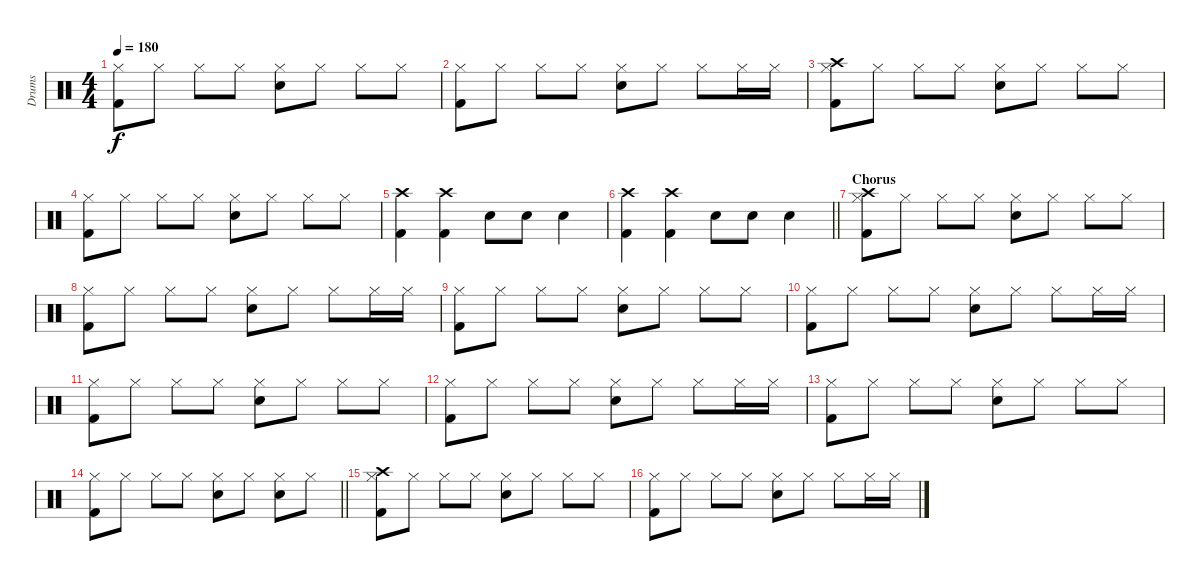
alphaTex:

\track ("Drums" "Drums") {instrument percussion}
\staff
\articulation defaults
\ts (4 4)
\tempo 180
\clef neutral
\ks c
("Hi-Hat (closed)" "Kick (hit) 2").8{dy f} "Hi-Hat (closed)".8 "Hi-Hat (closed)".8 "Hi-Hat (closed)".8 ("Hi-Hat (closed)" "Electric Snare (hit)").8 "Hi-Hat (closed)".8 "Hi-Hat (closed)".8 "Hi-Hat (closed)".8 |
("Hi-Hat (closed)" "Kick (hit) 2").8 "Hi-Hat (closed)".8 "Hi-Hat (closed)".8 "Hi-Hat (closed)".8 ("Hi-Hat (closed)" "Electric Snare (hit)").8 "Hi-Hat (closed)".8 "Hi-Hat (closed)".8 "Hi-Hat (closed)".16 "Hi-Hat (closed)".16 |
("Crash high (hit)" "Hi-Hat (closed)" "Kick (hit) 2").8 "Hi-Hat (closed)".8 "Hi-Hat (closed)".8 "Hi-Hat (closed)".8 ("Hi-Hat (closed)" "Electric Snare (hit)").8 "Hi-Hat (closed)".8 "Hi-Hat (closed)".8 "Hi-Hat (closed)".8 |
("Hi-Hat (closed)" "Kick (hit) 2").8 "Hi-Hat (closed)".8 "Hi-Hat (closed)".8 "Hi-Hat (closed)".8 ("Hi-Hat (closed)" "Electric Snare (hit)").8 "Hi-Hat (closed)".8 "Hi-Hat (closed)".8 "Hi-Hat (closed)".8 |
("Crash high (hit)" "Kick (hit) 2").4 ("Crash high (hit)" "Kick (hit) 2").4 "Electric Snare (hit)".8 "Electric Snare (hit)".8 "Electric Snare (hit)".4 |
\barLineRight lightlight
("Crash high (hit)" "Kick (hit) 2").4 ("Crash high (hit)" "Kick (hit) 2").4 "Electric Snare (hit)".8 "Electric Snare (hit)".8 "Electric Snare (hit)".4 |
\section ("" "Chorus")
("Crash high (hit)" "Hi-Hat (closed)" "Kick (hit) 2").8 "Hi-Hat (closed)".8 "Hi-Hat (closed)".8 "Hi-Hat (closed)".8 ("Hi-Hat (closed)" "Electric Snare (hit)").8 "Hi-Hat (closed)".8 "Hi-Hat (closed)".8 "Hi-Hat (closed)".8 |
("Hi-Hat (closed)" "Kick (hit) 2").8 "Hi-Hat (closed)".8 "Hi-Hat (closed)".8 "Hi-Hat (closed)".8 ("Hi-Hat (closed)" "Electric Snare (hit)").8 "Hi-Hat (closed)".8 "Hi-Hat (closed)".8 "Hi-Hat (closed)".16 "Hi-Hat (closed)".16 |
("Hi-Hat (closed)" "Kick (hit) 2").8 "Hi-Hat (closed)".8 "Hi-Hat (closed)".8 "Hi-Hat (closed)".8 ("Hi-Hat (closed)" "Electric Snare (hit)").8 "Hi-Hat (closed)".8 "Hi-Hat (closed)".8 "Hi-Hat (closed)".8 |
("Hi-Hat (closed)" "Kick (hit) 2").8 "Hi-Hat (closed)".8 "Hi-Hat (closed)".8 "Hi-Hat (closed)".8 ("Hi-Hat (closed)" "Electric Snare (hit)").8 "Hi-Hat (closed)".8 "Hi-Hat (closed)".8 "Hi-Hat (closed)".16 "Hi-Hat (closed)".16 |
("Hi-Hat (closed)" "Kick (hit) 2").8 "Hi-Hat (closed)".8 "Hi-Hat (closed)".8 "Hi-Hat (closed)".8 ("Hi-Hat (closed)" "Electric Snare (hit)").8 "Hi-Hat (closed)".8 "Hi-Hat (closed)".8 "Hi-Hat (closed)".8 |
("Hi-Hat (closed)" "Kick (hit) 2").8 "Hi-Hat (closed)".8 "Hi-Hat (closed)".8 "Hi-Hat (closed)".8 ("Hi-Hat (closed)" "Electric Snare (hit)").8 "Hi-Hat (closed)".8 "Hi-Hat (closed)".8 "Hi-Hat (closed)".16 "Hi-Hat (closed)".16 |
("Hi-Hat (closed)" "Kick (hit) 2").8 "Hi-Hat (closed)".8 "Hi-Hat (closed)".8 "Hi-Hat (closed)".8 ("Hi-Hat (closed)" "Electric Snare (hit)").8 "Hi-Hat (closed)".8 "Hi-Hat (closed)".8 "Hi-Hat (closed)".8 |
\barLineRight lightlight
("Hi-Hat (closed)" "Kick (hit) 2").8 "Hi-Hat (closed)".8 "Hi-Hat (closed)".8 "Hi-Hat (closed)".8 ("Hi-Hat (closed)" "Electric Snare (hit)").8 "Hi-Hat (closed)".8 ("Hi-Hat (closed)" "Electric Snare (hit)").8 "Hi-Hat (closed)".8 |
("Crash high (hit)" "Hi-Hat (closed)" "Kick (hit) 2").8 "Hi-Hat (closed)".8 "Hi-Hat (closed)".8 "Hi-Hat (closed)".8 ("Hi-Hat (closed)" "Electric Snare (hit)").8 "Hi-Hat (closed)".8 "Hi-Hat (closed)".8 "Hi-Hat (closed)".8 |
("Hi-Hat (closed)" "Kick (hit) 2").8 "Hi-Hat (closed)".8 "Hi-Hat (closed)".8 "Hi-Hat (closed)".8 ("Hi-Hat (closed)" "Electric Snare (hit)").8 "Hi-Hat (closed)".8 "Hi-Hat (closed)".8 "Hi-Hat (closed)".16 "Hi-Hat (closed)".16
